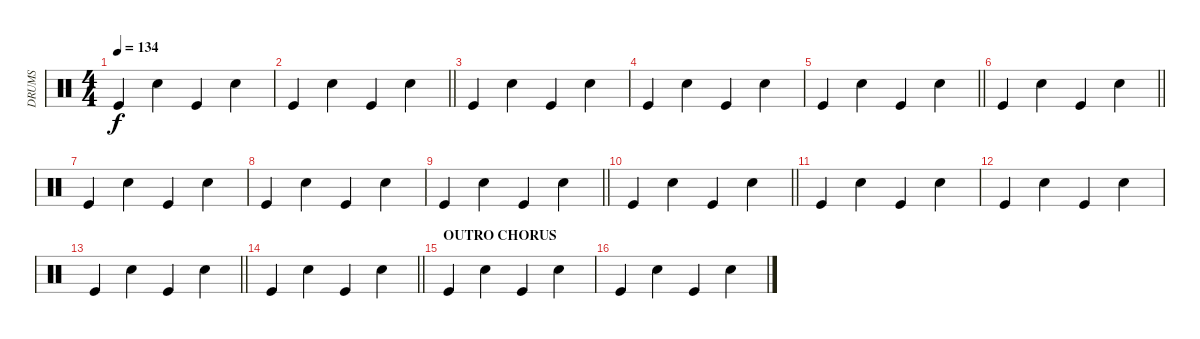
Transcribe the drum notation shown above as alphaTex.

\track ("DRUMS" "DRUMS") {instrument percussion}
\staff {score}
\articulation defaults
\ts (4 4)
\tempo 134
\clef neutral
\ks c "Kick (hit)".4{dy f} "Snare (hit) 2".4 "Kick (hit)".4 "Snare (hit) 2".4
|
\barLineRight lightlight "Kick (hit)".4 "Snare (hit) 2".4 "Kick (hit)".4 "Snare (hit) 2".4
|
"Kick (hit)".4 "Snare (hit) 2".4 "Kick (hit)".4 "Snare (hit) 2".4 |
"Kick (hit)".4 "Snare (hit) 2".4 "Kick (hit)".4 "Snare (hit) 2".4 |
\barLineRight lightlight "Kick (hit)".4 "Snare (hit) 2".4 "Kick (hit)".4 "Snare (hit) 2".4
|
\barLineRight lightlight "Kick (hit)".4 "Snare (hit) 2".4 "Kick (hit)".4 "Snare (hit) 2".4
|
"Kick (hit)".4 "Snare (hit) 2".4 "Kick (hit)".4 "Snare (hit) 2".4 |
"Kick (hit)".4 "Snare (hit) 2".4 "Kick (hit)".4 "Snare (hit) 2".4 |
\barLineRight lightlight "Kick (hit)".4 "Snare (hit) 2".4 "Kick (hit)".4 "Snare (hit) 2".4
|
\barLineRight lightlight "Kick (hit)".4 "Snare (hit) 2".4 "Kick (hit)".4 "Snare (hit) 2".4
|
"Kick (hit)".4 "Snare (hit) 2".4 "Kick (hit)".4 "Snare (hit) 2".4 |
"Kick (hit)".4 "Snare (hit) 2".4 "Kick (hit)".4 "Snare (hit) 2".4 |
\barLineRight lightlight "Kick (hit)".4 "Snare (hit) 2".4 "Kick (hit)".4 "Snare (hit) 2".4
|
\barLineRight lightlight "Kick (hit)".4 "Snare (hit) 2".4 "Kick (hit)".4 "Snare (hit) 2".4
|
\section ("" "OUTRO CHORUS")
"Kick (hit)".4 "Snare (hit) 2".4 "Kick (hit)".4 "Snare (hit) 2".4 |
"Kick (hit)".4 "Snare (hit) 2".4 "Kick (hit)".4 "Snare (hit) 2".4
